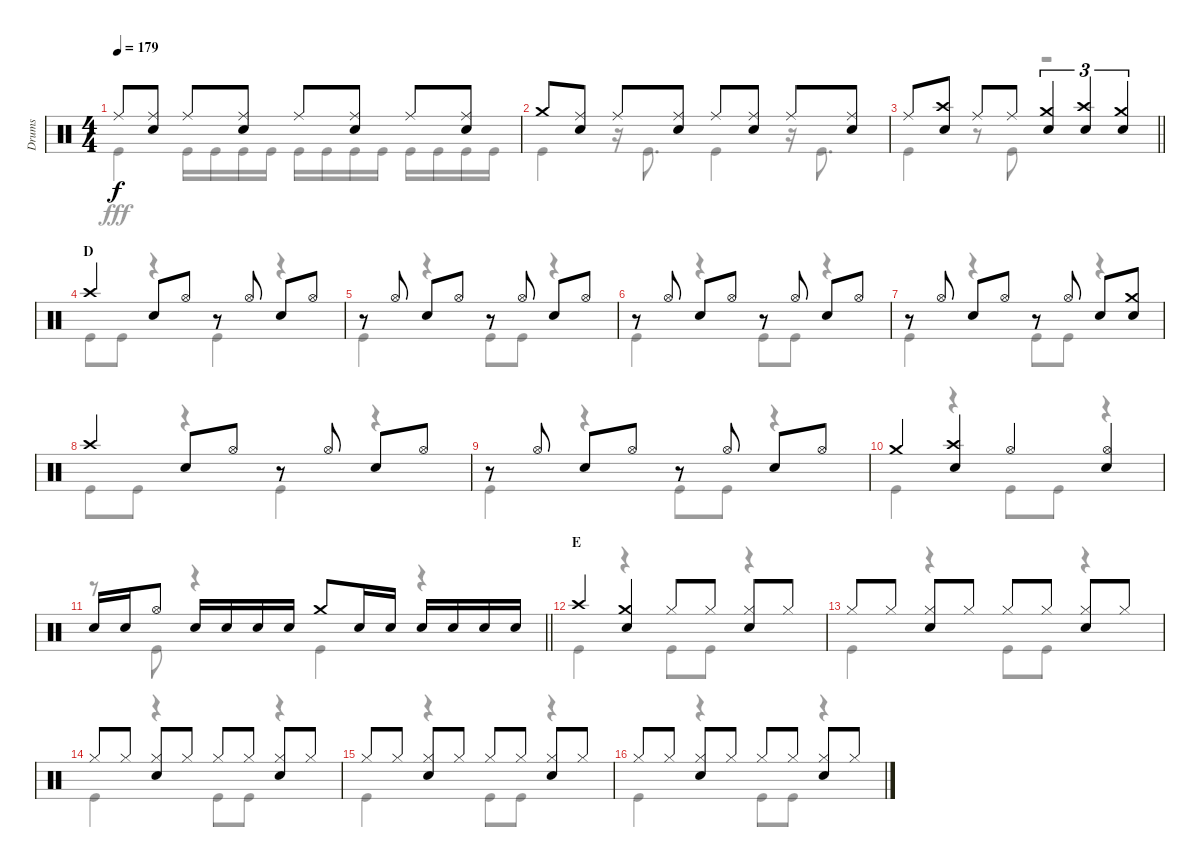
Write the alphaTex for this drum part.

\track ("Drums" "Drums") {instrument percussion}
\staff {score}
\articulation defaults
\voice
\ts (4 4)
\tempo 179
\clef neutral
\ks c "Ride (middle)".8{dy f}
("Ride (middle)" "Snare (hit) 2").8 "Ride (middle)".8 ("Ride (middle)" "Snare (hit) 2").8 "Ride (middle)".8 ("Ride (middle)" "Snare (hit) 2").8 "Ride (middle)".8 ("Ride (middle)" "Snare (hit) 2").8 |
"Crash medium (hit)".8 ("Ride (middle)" "Snare (hit) 2").8 "Ride (middle)".8 ("Ride (middle)" "Snare (hit) 2").8 "Ride (middle)".8 ("Ride (middle)" "Snare (hit) 2").8 "Ride (middle)".8 ("Ride (middle)" "Snare (hit) 2").8 |
\barLineRight lightlight "Ride (middle)".8
("Crash high (hit)" "Snare (hit) 2").8 "Ride (middle)".8 "Ride (middle)".8 ("Crash medium (hit)" "Snare (hit) 2").4{tu (3 2)} ("Crash high (hit)" "Snare (hit) 2").4{tu (3 2)} ("Crash medium (hit)" "Snare (hit) 2").4{tu (3 2)} |
\section ("" "D")
"Crash high (hit)".4 "Snare (hit) 2".8 "Hi-Hat (open)".8 r.8 "Hi-Hat (open)".8 "Snare (hit) 2".8 "Hi-Hat (open)".8 |
r.8 "Hi-Hat (open)".8 "Snare (hit) 2".8 "Hi-Hat (open)".8 r.8 "Hi-Hat (open)".8 "Snare (hit) 2".8 "Hi-Hat (open)".8 |
r.8 "Hi-Hat (open)".8 "Snare (hit) 2".8 "Hi-Hat (open)".8 r.8 "Hi-Hat (open)".8 "Snare (hit) 2".8 "Hi-Hat (open)".8 |
r.8 "Hi-Hat (open)".8 "Snare (hit) 2".8 "Hi-Hat (open)".8 r.8 "Hi-Hat (open)".8 "Snare (hit) 2".8 ("Crash medium (hit)" "Snare (hit) 2").8 |
"Crash high (hit)".4 "Snare (hit) 2".8 "Hi-Hat (open)".8 r.8 "Hi-Hat (open)".8 "Snare (hit) 2".8 "Hi-Hat (open)".8 |
r.8 "Hi-Hat (open)".8 "Snare (hit) 2".8 "Hi-Hat (open)".8 r.8 "Hi-Hat (open)".8 "Snare (hit) 2".8 "Hi-Hat (open)".8 |
"Crash medium (hit)".4 ("Crash high (hit)" "Snare (hit) 2").4 "Hi-Hat (open)".4 ("Hi-Hat (open)" "Snare (hit) 2").4 |
\barLineRight lightlight "Snare (hit) 2".16 "Snare (hit) 2".16 "Hi-Hat (open)".8 "Snare (hit) 2".16 "Snare (hit) 2".16 "Snare (hit) 2".16 "Snare (hit) 2".16 "Crash medium (hit)".8 "Snare (hit) 2".16 "Snare (hit) 2".16 "Snare (hit) 2".16 "Snare (hit) 2".16 "Snare (hit) 2".16 "Snare (hit) 2".16
|
\section ("" "E")
"Crash high (hit)".4 ("Crash medium (hit)" "Snare (hit) 2").4 "Hi-Hat (closed)".8 "Hi-Hat (closed)".8 ("Hi-Hat (closed)" "Snare (hit) 2").8 "Hi-Hat (closed)".8 |
"Hi-Hat (closed)".8 "Hi-Hat (closed)".8 ("Snare (hit) 2" "Hi-Hat (closed)").8 "Hi-Hat (closed)".8 "Hi-Hat (closed)".8 "Hi-Hat (closed)".8 ("Hi-Hat (closed)" "Snare (hit) 2").8 "Hi-Hat (closed)".8 |
"Hi-Hat (closed)".8 "Hi-Hat (closed)".8 ("Snare (hit) 2" "Hi-Hat (closed)").8 "Hi-Hat (closed)".8 "Hi-Hat (closed)".8 "Hi-Hat (closed)".8 ("Hi-Hat (closed)" "Snare (hit) 2").8 "Hi-Hat (closed)".8 |
"Hi-Hat (closed)".8 "Hi-Hat (closed)".8 ("Snare (hit) 2" "Hi-Hat (closed)").8 "Hi-Hat (closed)".8 "Hi-Hat (closed)".8 "Hi-Hat (closed)".8 ("Hi-Hat (closed)" "Snare (hit) 2").8 "Hi-Hat (closed)".8 |
"Hi-Hat (closed)".8 "Hi-Hat (closed)".8 ("Snare (hit) 2" "Hi-Hat (closed)").8 "Hi-Hat (closed)".8 "Hi-Hat (closed)".8 "Hi-Hat (closed)".8 ("Hi-Hat (closed)" "Snare (hit) 2").8 "Hi-Hat (closed)".8
\voice
\clef neutral
\ottava regular
\simile none
\ks c "Kick (hit)".4{dy fff} "Kick (hit)".16 "Kick (hit)".16 "Kick (hit)".16 "Kick (hit)".16 "Kick (hit)".16 "Kick (hit)".16 "Kick (hit)".16 "Kick (hit)".16 "Kick (hit)".16 "Kick (hit)".16 "Kick (hit)".16 "Kick (hit)".16
|
"Kick (hit)".4 r.16 "Kick (hit)".8{d} "Kick (hit)".4 r.16 "Kick (hit)".8{d} |
\barLineRight lightlight "Kick (hit)".4
r.8 "Kick (hit)".8 r.2 |
"Kick (hit)".8 "Kick (hit)".8 r.4 "Kick (hit)".4 r.4 |
"Kick (hit)".4 r.4 "Kick (hit)".8 "Kick (hit)".8 r.4 |
"Kick (hit)".4 r.4 "Kick (hit)".8 "Kick (hit)".8 r.4 |
"Kick (hit)".4 r.4 "Kick (hit)".8 "Kick (hit)".8 r.4 |
"Kick (hit)".8 "Kick (hit)".8 r.4 "Kick (hit)".4 r.4 |
"Kick (hit)".4 r.4 "Kick (hit)".8 "Kick (hit)".8 r.4 |
"Kick (hit)".4 r.4 "Kick (hit)".8 "Kick (hit)".8 r.4 |
\barLineRight lightlight
r.8 "Kick (hit)".8 r.4 "Kick (hit)".4 r.4 |
"Kick (hit)".4 r.4 "Kick (hit)".8 "Kick (hit)".8 r.4 |
"Kick (hit)".4 r.4 "Kick (hit)".8 "Kick (hit)".8 r.4 |
"Kick (hit)".4 r.4 "Kick (hit)".8 "Kick (hit)".8 r.4 |
"Kick (hit)".4 r.4 "Kick (hit)".8 "Kick (hit)".8 r.4 |
"Kick (hit)".4 r.4 "Kick (hit)".8 "Kick (hit)".8 r.4
